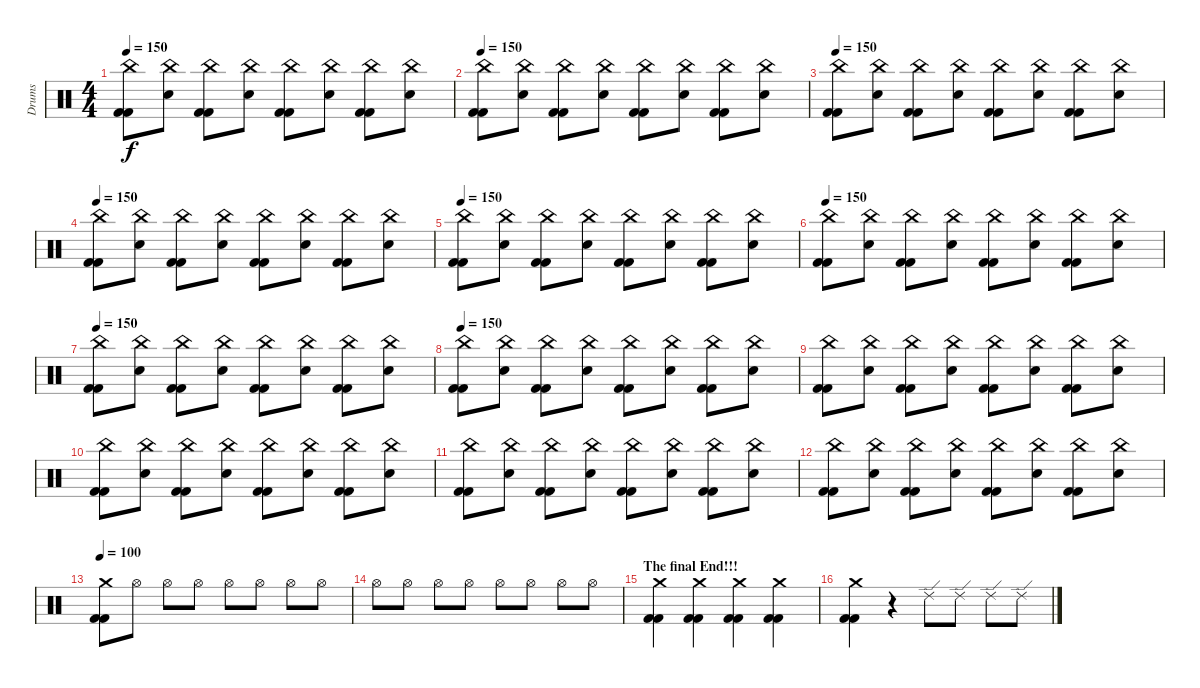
\track ("Drums" "Drums") {instrument percussion}
\staff {score}
\articulation defaults
\ts (4 4)
\tempo 150
\clef neutral
\ks c
("China (hit)" "Kick (hit) 2" "Kick (hit) 2").8{dy f} ("Electric Snare (hit)" "China (hit)").8 ("Kick (hit) 2" "Kick (hit) 2" "China (hit)").8 ("Electric Snare (hit)" "China (hit)").8 ("China (hit)" "Kick (hit) 2" "Kick (hit) 2").8 ("Electric Snare (hit)" "China (hit)").8 ("China (hit)" "Kick (hit) 2" "Kick (hit) 2").8 ("Electric Snare (hit)" "China (hit)").8 |
\tempo 150
("China (hit)" "Kick (hit) 2" "Kick (hit) 2").8 ("Electric Snare (hit)" "China (hit)").8 ("Kick (hit) 2" "Kick (hit) 2" "China (hit)").8 ("Electric Snare (hit)" "China (hit)").8 ("China (hit)" "Kick (hit) 2" "Kick (hit) 2").8 ("Electric Snare (hit)" "China (hit)").8 ("China (hit)" "Kick (hit) 2" "Kick (hit) 2").8 ("Electric Snare (hit)" "China (hit)").8 |
\tempo 150
("China (hit)" "Kick (hit) 2" "Kick (hit) 2").8 ("Electric Snare (hit)" "China (hit)").8 ("Kick (hit) 2" "Kick (hit) 2" "China (hit)").8 ("Electric Snare (hit)" "China (hit)").8 ("China (hit)" "Kick (hit) 2" "Kick (hit) 2").8 ("Electric Snare (hit)" "China (hit)").8 ("China (hit)" "Kick (hit) 2" "Kick (hit) 2").8 ("Electric Snare (hit)" "China (hit)").8 |
\tempo 150
("China (hit)" "Kick (hit) 2" "Kick (hit) 2").8 ("Electric Snare (hit)" "China (hit)").8 ("Kick (hit) 2" "Kick (hit) 2" "China (hit)").8 ("Electric Snare (hit)" "China (hit)").8 ("China (hit)" "Kick (hit) 2" "Kick (hit) 2").8 ("Electric Snare (hit)" "China (hit)").8 ("China (hit)" "Kick (hit) 2" "Kick (hit) 2").8 ("Electric Snare (hit)" "China (hit)").8 |
\tempo 150
("China (hit)" "Kick (hit) 2" "Kick (hit) 2").8 ("Electric Snare (hit)" "China (hit)").8 ("Kick (hit) 2" "Kick (hit) 2" "China (hit)").8 ("Electric Snare (hit)" "China (hit)").8 ("China (hit)" "Kick (hit) 2" "Kick (hit) 2").8 ("Electric Snare (hit)" "China (hit)").8 ("China (hit)" "Kick (hit) 2" "Kick (hit) 2").8 ("Electric Snare (hit)" "China (hit)").8 |
\tempo 150
("China (hit)" "Kick (hit) 2" "Kick (hit) 2").8 ("Electric Snare (hit)" "China (hit)").8 ("Kick (hit) 2" "Kick (hit) 2" "China (hit)").8 ("Electric Snare (hit)" "China (hit)").8 ("China (hit)" "Kick (hit) 2" "Kick (hit) 2").8 ("Electric Snare (hit)" "China (hit)").8 ("China (hit)" "Kick (hit) 2" "Kick (hit) 2").8 ("Electric Snare (hit)" "China (hit)").8 |
\tempo 150
("China (hit)" "Kick (hit) 2" "Kick (hit) 2").8 ("Electric Snare (hit)" "China (hit)").8 ("Kick (hit) 2" "Kick (hit) 2" "China (hit)").8 ("Electric Snare (hit)" "China (hit)").8 ("China (hit)" "Kick (hit) 2" "Kick (hit) 2").8 ("Electric Snare (hit)" "China (hit)").8 ("China (hit)" "Kick (hit) 2" "Kick (hit) 2").8 ("Electric Snare (hit)" "China (hit)").8 |
\tempo 150
("China (hit)" "Kick (hit) 2" "Kick (hit) 2").8 ("Electric Snare (hit)" "China (hit)").8 ("Kick (hit) 2" "Kick (hit) 2" "China (hit)").8 ("Electric Snare (hit)" "China (hit)").8 ("China (hit)" "Kick (hit) 2" "Kick (hit) 2").8 ("Electric Snare (hit)" "China (hit)").8 ("China (hit)" "Kick (hit) 2" "Kick (hit) 2").8 ("Electric Snare (hit)" "China (hit)").8 |
("China (hit)" "Kick (hit) 2" "Kick (hit) 2").8 ("Electric Snare (hit)" "China (hit)").8 ("Kick (hit) 2" "Kick (hit) 2" "China (hit)").8 ("Electric Snare (hit)" "China (hit)").8 ("China (hit)" "Kick (hit) 2" "Kick (hit) 2").8 ("Electric Snare (hit)" "China (hit)").8 ("China (hit)" "Kick (hit) 2" "Kick (hit) 2").8 ("Electric Snare (hit)" "China (hit)").8 |
("China (hit)" "Kick (hit) 2" "Kick (hit) 2").8 ("Electric Snare (hit)" "China (hit)").8 ("Kick (hit) 2" "Kick (hit) 2" "China (hit)").8 ("Electric Snare (hit)" "China (hit)").8 ("China (hit)" "Kick (hit) 2" "Kick (hit) 2").8 ("Electric Snare (hit)" "China (hit)").8 ("China (hit)" "Kick (hit) 2" "Kick (hit) 2").8 ("Electric Snare (hit)" "China (hit)").8 |
("China (hit)" "Kick (hit) 2" "Kick (hit) 2").8 ("Electric Snare (hit)" "China (hit)").8 ("Kick (hit) 2" "Kick (hit) 2" "China (hit)").8 ("Electric Snare (hit)" "China (hit)").8 ("China (hit)" "Kick (hit) 2" "Kick (hit) 2").8 ("Electric Snare (hit)" "China (hit)").8 ("China (hit)" "Kick (hit) 2" "Kick (hit) 2").8 ("Electric Snare (hit)" "China (hit)").8 |
("China (hit)" "Kick (hit) 2" "Kick (hit) 2").8 ("Electric Snare (hit)" "China (hit)").8 ("Kick (hit) 2" "Kick (hit) 2" "China (hit)").8 ("Electric Snare (hit)" "China (hit)").8 ("China (hit)" "Kick (hit) 2" "Kick (hit) 2").8 ("Electric Snare (hit)" "China (hit)").8 ("China (hit)" "Kick (hit) 2" "Kick (hit) 2").8 ("Electric Snare (hit)" "China (hit)").8 |
\tempo 100
("Crash medium (hit)" "Kick (hit) 2" "Kick (hit) 2").8 "Hi-Hat (open)".8 "Hi-Hat (open)".8 "Hi-Hat (open)".8 "Hi-Hat (open)".8 "Hi-Hat (open)".8 "Hi-Hat (open)".8 "Hi-Hat (open)".8 |
"Hi-Hat (open)".8 "Hi-Hat (open)".8 "Hi-Hat (open)".8 "Hi-Hat (open)".8 "Hi-Hat (open)".8 "Hi-Hat (open)".8 "Hi-Hat (open)".8 "Hi-Hat (open)".8 |
\section ("" "The final End!!!")
("Crash medium (hit)" "Kick (hit) 2" "Kick (hit) 2").4 ("Kick (hit) 2" "Kick (hit) 2" "Crash medium (hit)").4 ("Crash medium (hit)" "Kick (hit) 2" "Kick (hit) 2").4 ("Kick (hit) 2" "Kick (hit) 2" "Crash medium (hit)").4 |
("Crash medium (hit)" "Kick (hit) 2" "Kick (hit) 2").4 r.4 "Ride (edge) 2".8 "Ride (edge) 2".8 "Ride (edge) 2".8 "Ride (edge) 2".8
